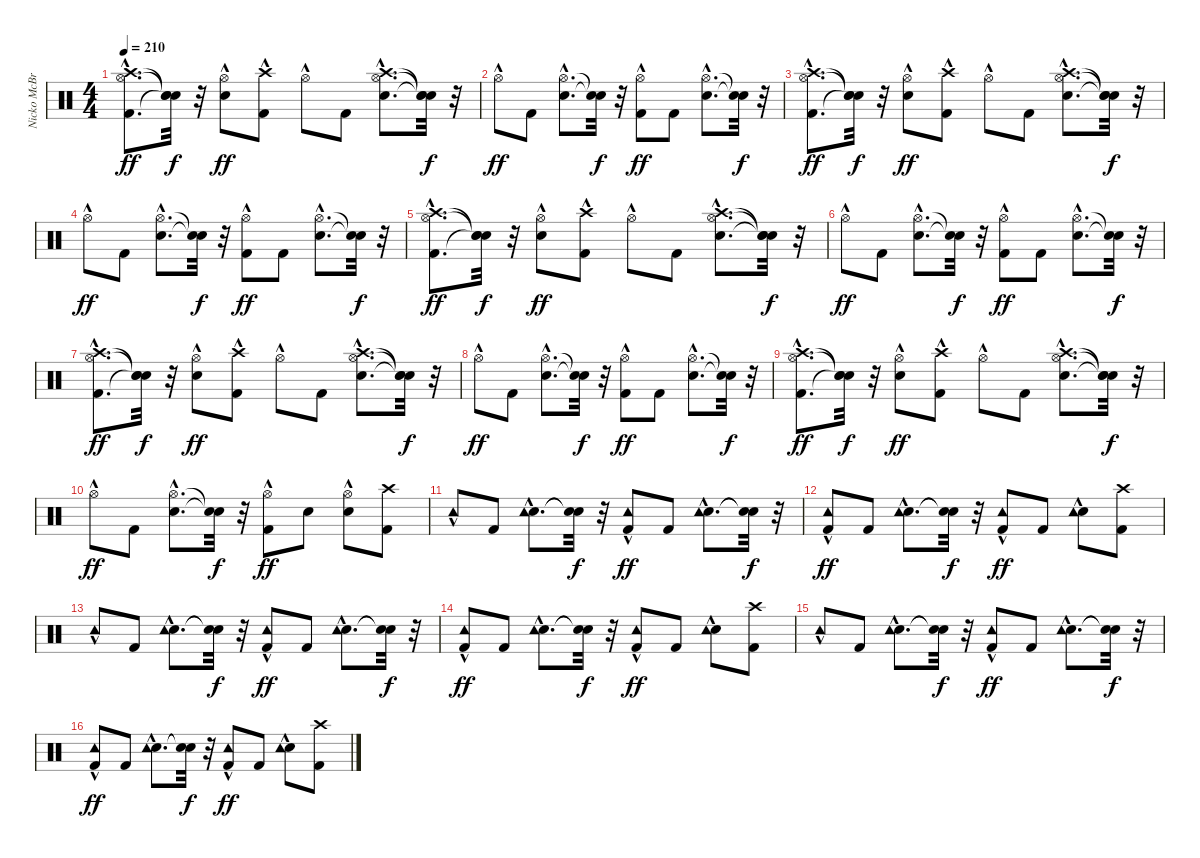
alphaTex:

\track ("Nicko McBrain" "Nicko McBr") {instrument percussion}
\staff {score}
\articulation defaults
\ts (4 4)
\tempo 210
\clef neutral
\ks c
("Kick (hit) 2"{hac} "Hi-Hat (open)"{hac} "Crash high (hit)"{hac}).8{d dy ff} ("Snare (hit)"{t} "Snare (hit)"{t} "Snare (hit)"{t}).32{dy f} r.32 ("Snare (hit) 2" "Hi-Hat (open)"{hac}).8{dy ff} ("Kick (hit) 2" "Crash high (hit)"{hac}).8 "Hi-Hat (open)"{hac}.8 "Kick (hit) 2".8 ("Snare (hit) 2"{hac} "Hi-Hat (open)"{hac} "Crash high (hit)"{hac}).8{d} ("Snare (hit)"{t} "Snare (hit)"{t} "Snare (hit)"{t}).32{dy f} r.32 |
"Hi-Hat (open)"{hac}.8{dy ff} "Kick (hit) 2".8 ("Snare (hit) 2"{hac} "Hi-Hat (open)"{hac}).8{d} ("Snare (hit)"{t} "Snare (hit)"{t}).32{dy f} r.32 ("Kick (hit) 2" "Hi-Hat (open)"{hac}).8{dy ff} "Kick (hit) 2".8 ("Snare (hit) 2"{hac} "Hi-Hat (open)"{hac}).8{d} ("Snare (hit)"{t} "Snare (hit)"{t}).32{dy f} r.32 |
("Kick (hit) 2"{hac} "Hi-Hat (open)"{hac} "Crash high (hit)"{hac}).8{d dy ff} ("Snare (hit)"{t} "Snare (hit)"{t} "Snare (hit)"{t}).32{dy f} r.32 ("Snare (hit) 2" "Hi-Hat (open)"{hac}).8{dy ff} ("Kick (hit) 2" "Crash high (hit)"{hac}).8 "Hi-Hat (open)"{hac}.8 "Kick (hit) 2".8 ("Snare (hit) 2"{hac} "Hi-Hat (open)"{hac} "Crash high (hit)"{hac}).8{d} ("Snare (hit)"{t} "Snare (hit)"{t} "Snare (hit)"{t}).32{dy f} r.32 |
"Hi-Hat (open)"{hac}.8{dy ff} "Kick (hit) 2".8 ("Snare (hit) 2"{hac} "Hi-Hat (open)"{hac}).8{d} ("Snare (hit)"{t} "Snare (hit)"{t}).32{dy f} r.32 ("Kick (hit) 2" "Hi-Hat (open)"{hac}).8{dy ff} "Kick (hit) 2".8 ("Snare (hit) 2"{hac} "Hi-Hat (open)"{hac}).8{d} ("Snare (hit)"{t} "Snare (hit)"{t}).32{dy f} r.32 |
("Kick (hit) 2"{hac} "Hi-Hat (open)"{hac} "Crash high (hit)"{hac}).8{d dy ff} ("Snare (hit)"{t} "Snare (hit)"{t} "Snare (hit)"{t}).32{dy f} r.32 ("Snare (hit) 2" "Hi-Hat (open)"{hac}).8{dy ff} ("Kick (hit) 2" "Crash high (hit)"{hac}).8 "Hi-Hat (open)"{hac}.8 "Kick (hit) 2".8 ("Snare (hit) 2"{hac} "Hi-Hat (open)"{hac} "Crash high (hit)"{hac}).8{d} ("Snare (hit)"{t} "Snare (hit)"{t} "Snare (hit)"{t}).32{dy f} r.32 |
"Hi-Hat (open)"{hac}.8{dy ff} "Kick (hit) 2".8 ("Snare (hit) 2"{hac} "Hi-Hat (open)"{hac}).8{d} ("Snare (hit)"{t} "Snare (hit)"{t}).32{dy f} r.32 ("Kick (hit) 2" "Hi-Hat (open)"{hac}).8{dy ff} "Kick (hit) 2".8 ("Snare (hit) 2"{hac} "Hi-Hat (open)"{hac}).8{d} ("Snare (hit)"{t} "Snare (hit)"{t}).32{dy f} r.32 |
("Kick (hit) 2"{hac} "Hi-Hat (open)"{hac} "Crash high (hit)"{hac}).8{d dy ff} ("Snare (hit)"{t} "Snare (hit)"{t} "Snare (hit)"{t}).32{dy f} r.32 ("Snare (hit) 2" "Hi-Hat (open)"{hac}).8{dy ff} ("Kick (hit) 2" "Crash high (hit)"{hac}).8 "Hi-Hat (open)"{hac}.8 "Kick (hit) 2".8 ("Snare (hit) 2"{hac} "Hi-Hat (open)"{hac} "Crash high (hit)"{hac}).8{d} ("Snare (hit)"{t} "Snare (hit)"{t} "Snare (hit)"{t}).32{dy f} r.32 |
"Hi-Hat (open)"{hac}.8{dy ff} "Kick (hit) 2".8 ("Snare (hit) 2"{hac} "Hi-Hat (open)"{hac}).8{d} ("Snare (hit)"{t} "Snare (hit)"{t}).32{dy f} r.32 ("Kick (hit) 2" "Hi-Hat (open)"{hac}).8{dy ff} "Kick (hit) 2".8 ("Snare (hit) 2"{hac} "Hi-Hat (open)"{hac}).8{d} ("Snare (hit)"{t} "Snare (hit)"{t}).32{dy f} r.32 |
("Kick (hit) 2"{hac} "Hi-Hat (open)"{hac} "Crash high (hit)"{hac}).8{d dy ff} ("Snare (hit)"{t} "Snare (hit)"{t} "Snare (hit)"{t}).32{dy f} r.32 ("Snare (hit) 2" "Hi-Hat (open)"{hac}).8{dy ff} ("Kick (hit) 2" "Crash high (hit)"{hac}).8 "Hi-Hat (open)"{hac}.8 "Kick (hit) 2".8 ("Snare (hit) 2"{hac} "Hi-Hat (open)"{hac} "Crash high (hit)"{hac}).8{d} ("Snare (hit)"{t} "Snare (hit)"{t} "Snare (hit)"{t}).32{dy f} r.32 |
"Hi-Hat (open)"{hac}.8{dy ff} "Kick (hit) 2".8 ("Snare (hit) 2"{hac} "Hi-Hat (open)"{hac}).8{d} ("Snare (hit)"{t} "Snare (hit)"{t}).32{dy f} r.32 ("Kick (hit) 2" "Hi-Hat (open)"{hac}).8{dy ff} "Snare (hit) 2".8 ("Snare (hit) 2" "Hi-Hat (open)"{hac}).8 ("Kick (hit) 2" "Crash high (hit)").8 |
"Tambourine (hit)"{hac}.8 "Kick (hit) 2".8 ("Snare (hit) 2"{hac} "Tambourine (hit)"{hac}).8{d} ("Snare (hit)"{t} "Snare (hit)"{t}).32{dy f} r.32 ("Kick (hit) 2" "Tambourine (hit)"{hac}).8{dy ff} "Kick (hit) 2".8 ("Snare (hit) 2"{hac} "Tambourine (hit)"{hac}).8{d} ("Snare (hit)"{t} "Snare (hit)"{t}).32{dy f} r.32 |
("Kick (hit) 2" "Tambourine (hit)"{hac}).8{dy ff} "Kick (hit) 2".8 ("Snare (hit) 2"{hac} "Tambourine (hit)"{hac}).8{d} ("Snare (hit)"{t} "Snare (hit)"{t}).32{dy f} r.32 ("Kick (hit) 2" "Tambourine (hit)"{hac}).8{dy ff} "Kick (hit) 2".8 ("Snare (hit) 2" "Tambourine (hit)"{hac}).8 ("Kick (hit) 2" "Crash high (hit)").8 |
"Tambourine (hit)"{hac}.8 "Kick (hit) 2".8 ("Snare (hit) 2"{hac} "Tambourine (hit)"{hac}).8{d} ("Snare (hit)"{t} "Snare (hit)"{t}).32{dy f} r.32 ("Kick (hit) 2" "Tambourine (hit)"{hac}).8{dy ff} "Kick (hit) 2".8 ("Snare (hit) 2"{hac} "Tambourine (hit)"{hac}).8{d} ("Snare (hit)"{t} "Snare (hit)"{t}).32{dy f} r.32 |
("Kick (hit) 2" "Tambourine (hit)"{hac}).8{dy ff} "Kick (hit) 2".8 ("Snare (hit) 2"{hac} "Tambourine (hit)"{hac}).8{d} ("Snare (hit)"{t} "Snare (hit)"{t}).32{dy f} r.32 ("Kick (hit) 2" "Tambourine (hit)"{hac}).8{dy ff} "Kick (hit) 2".8 ("Snare (hit) 2" "Tambourine (hit)"{hac}).8 ("Kick (hit) 2" "Crash high (hit)").8 |
"Tambourine (hit)"{hac}.8 "Kick (hit) 2".8 ("Snare (hit) 2"{hac} "Tambourine (hit)"{hac}).8{d} ("Snare (hit)"{t} "Snare (hit)"{t}).32{dy f} r.32 ("Kick (hit) 2" "Tambourine (hit)"{hac}).8{dy ff} "Kick (hit) 2".8 ("Snare (hit) 2"{hac} "Tambourine (hit)"{hac}).8{d} ("Snare (hit)"{t} "Snare (hit)"{t}).32{dy f} r.32 |
("Kick (hit) 2" "Tambourine (hit)"{hac}).8{dy ff} "Kick (hit) 2".8 ("Snare (hit) 2"{hac} "Tambourine (hit)"{hac}).8{d} ("Snare (hit)"{t} "Snare (hit)"{t}).32{dy f} r.32 ("Kick (hit) 2" "Tambourine (hit)"{hac}).8{dy ff} "Kick (hit) 2".8 ("Snare (hit) 2" "Tambourine (hit)"{hac}).8 ("Kick (hit) 2" "Crash high (hit)").8
